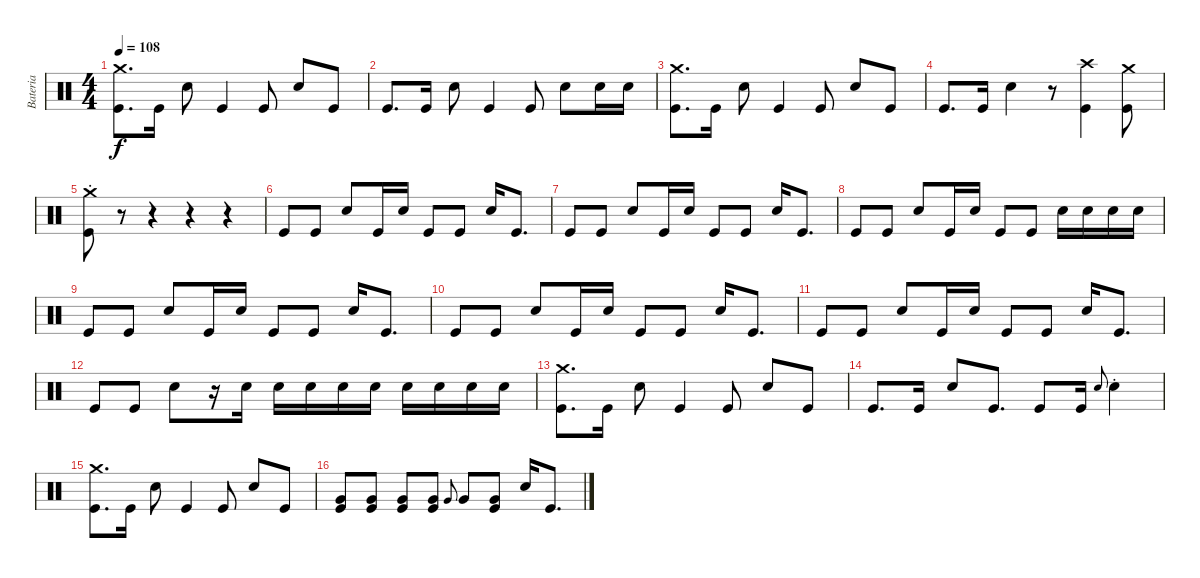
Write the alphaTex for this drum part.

\track ("Bateria" "Bateria") {instrument percussion}
\staff {score}
\articulation defaults
\ts (4 4)
\tempo 108
\clef neutral
\ks c
("Crash medium (hit)" "Kick (hit)").8{d dy f} "Kick (hit)".16 "Snare (hit) 2".8 "Kick (hit)".4 "Kick (hit)".8 "Snare (hit) 2".8 "Kick (hit)".8 |
"Kick (hit)".8{d} "Kick (hit)".16 "Snare (hit) 2".8 "Kick (hit)".4 "Kick (hit)".8 "Snare (hit) 2".8 "Snare (hit) 2".16 "Snare (hit) 2".16 |
("Crash medium (hit)" "Kick (hit)").8{d} "Kick (hit)".16 "Snare (hit) 2".8 "Kick (hit)".4 "Kick (hit)".8 "Snare (hit) 2".8 "Kick (hit)".8 |
"Kick (hit)".8{d} "Kick (hit)".16 "Snare (hit) 2".4 r.8 ("Crash high (hit)" "Kick (hit)").4 ("Crash medium (hit)" "Kick (hit)").8 |
("Crash medium (hit)" "Kick (hit)"{st}).8 r.8 r.4 r.4 r.4 |
"Kick (hit)".8 "Kick (hit)".8 "Snare (hit) 2".8 "Kick (hit)".16 "Snare (hit) 2".16 "Kick (hit)".8 "Kick (hit)".8 "Snare (hit) 2".16 "Kick (hit)".8{d} |
"Kick (hit)".8 "Kick (hit)".8 "Snare (hit) 2".8 "Kick (hit)".16 "Snare (hit) 2".16 "Kick (hit)".8 "Kick (hit)".8 "Snare (hit) 2".16 "Kick (hit)".8{d} |
"Kick (hit)".8 "Kick (hit)".8 "Snare (hit) 2".8 "Kick (hit)".16 "Snare (hit) 2".16 "Kick (hit)".8 "Kick (hit)".8 "Snare (hit) 2".16 "Snare (hit) 2".16 "Snare (hit) 2".16 "Snare (hit) 2".16 |
"Kick (hit)".8 "Kick (hit)".8 "Snare (hit) 2".8 "Kick (hit)".16 "Snare (hit) 2".16 "Kick (hit)".8 "Kick (hit)".8 "Snare (hit) 2".16 "Kick (hit)".8{d} |
"Kick (hit)".8 "Kick (hit)".8 "Snare (hit) 2".8 "Kick (hit)".16 "Snare (hit) 2".16 "Kick (hit)".8 "Kick (hit)".8 "Snare (hit) 2".16 "Kick (hit)".8{d} |
"Kick (hit)".8 "Kick (hit)".8 "Snare (hit) 2".8 "Kick (hit)".16 "Snare (hit) 2".16 "Kick (hit)".8 "Kick (hit)".8 "Snare (hit) 2".16 "Kick (hit)".8{d} |
"Kick (hit)".8 "Kick (hit)".8 "Snare (hit) 2".8 r.16 "Snare (hit) 2".16 "Snare (hit) 2".16 "Snare (hit) 2".16 "Snare (hit) 2".16 "Snare (hit) 2".16 "Snare (hit) 2".16 "Snare (hit) 2".16 "Snare (hit) 2".16 "Snare (hit) 2".16 |
("Crash medium (hit)" "Kick (hit)").8{d} "Kick (hit)".16 "Snare (hit) 2".8 "Kick (hit)".4 "Kick (hit)".8 "Snare (hit) 2".8 "Kick (hit)".8 |
"Kick (hit)".8{d} "Kick (hit)".16 "Snare (hit) 2".8 "Kick (hit)".8{d} "Kick (hit)".8 "Kick (hit)".16 "Snare (hit) 2".8{gr onbeat} "Snare (hit) 2"{st}.4 |
("Crash medium (hit)" "Kick (hit)").8{d} "Kick (hit)".16 "Snare (hit) 2".8 "Kick (hit)".4 "Kick (hit)".8 "Snare (hit) 2".8 "Kick (hit)".8 |
("Very Low Tom (hit)" "Kick (hit)").8 ("Very Low Tom (hit)" "Kick (hit)").8 ("Very Low Tom (hit)" "Kick (hit)").8 ("Very Low Tom (hit)" "Kick (hit)").8 "Very Low Tom (hit)".8{gr onbeat} "Very Low Tom (hit)".8 ("Very Low Tom (hit)" "Kick (hit)").8 "Snare (hit) 2".16 "Kick (hit)".8{d}
